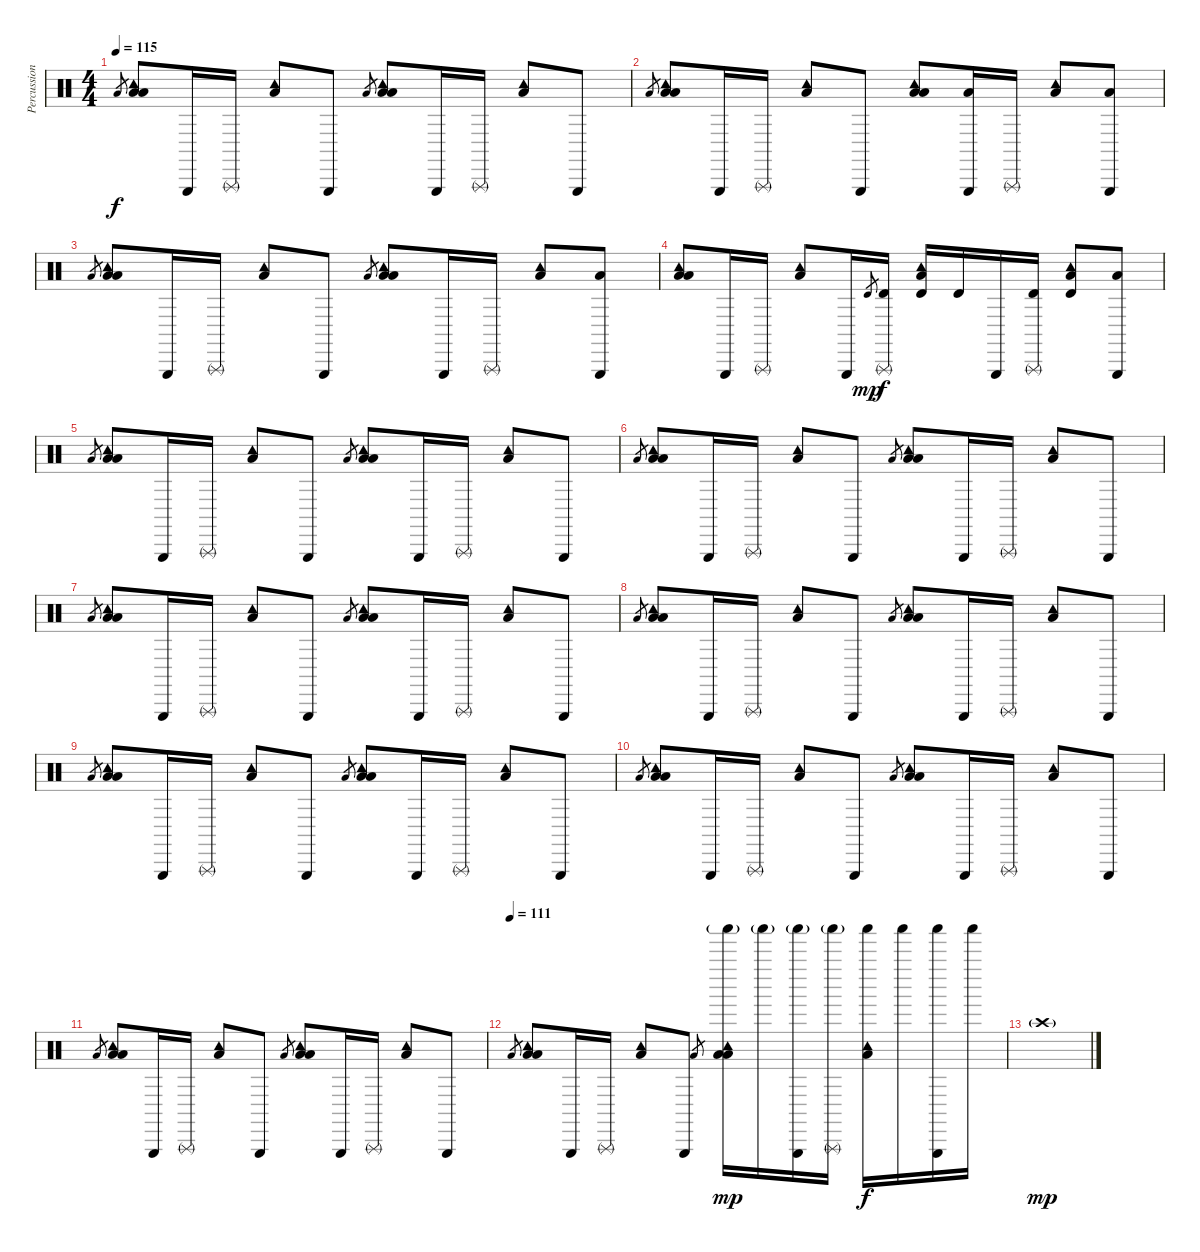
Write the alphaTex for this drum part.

\track ("Percussions" "Percussion") {instrument percussion}
\staff {score}
\articulation defaults
\ts (4 4)
\tempo 115
\clef neutral
\ks c "Low Floor Tom (hit)".8{gr dy f}
("Tambourine (hit)" "Low Floor Tom (hit)" "Low Floor Tom (hit)").8 "Triangle (hit)".16 "Triangle (rnute)".16 ("Tambourine (hit)" "Low Floor Tom (hit)").8 "Triangle (hit)".8 "Low Floor Tom (hit)".8{gr} ("Tambourine (hit)" "Low Floor Tom (hit)" "Low Floor Tom (hit)").8 "Triangle (hit)".16 "Triangle (rnute)".16 ("Tambourine (hit)" "Low Floor Tom (hit)").8 "Triangle (hit)".8 |
"Low Floor Tom (hit)".8{gr} ("Tambourine (hit)" "Low Floor Tom (hit)" "Low Floor Tom (hit)").8 "Triangle (hit)".16 "Triangle (rnute)".16 ("Tambourine (hit)" "Low Floor Tom (hit)").8 "Triangle (hit)".8 ("Tambourine (hit)" "Low Floor Tom (hit)" "Low Floor Tom (hit)").8 ("Triangle (hit)" "Low Floor Tom (hit)").16 "Triangle (rnute)".16 ("Tambourine (hit)" "Low Floor Tom (hit)").8 ("Triangle (hit)" "Low Floor Tom (hit)").8 |
"Low Floor Tom (hit)".8{gr} ("Tambourine (hit)" "Low Floor Tom (hit)" "Low Floor Tom (hit)").8 "Triangle (hit)".16 "Triangle (rnute)".16 ("Tambourine (hit)" "Low Floor Tom (hit)").8 "Triangle (hit)".8 "Low Floor Tom (hit)".8{gr} ("Tambourine (hit)" "Low Floor Tom (hit)" "Low Floor Tom (hit)").8 "Triangle (hit)".16 "Triangle (rnute)".16 ("Tambourine (hit)" "Low Floor Tom (hit)").8 ("Triangle (hit)" "Low Floor Tom (hit)").8 |
("Tambourine (hit)" "Low Floor Tom (hit)" "Low Floor Tom (hit)").8 "Triangle (hit)".16 "Triangle (rnute)".16 ("Tambourine (hit)" "Low Floor Tom (hit)").8 "Triangle (hit)".16 "Timbale high (hit)".8{gr dy mp} ("Triangle (rnute)" "Timbale high (hit)").16{dy f} ("Low Floor Tom (hit)" "Tambourine (hit)" "Timbale high (hit)").16 "Timbale high (hit)".16 "Triangle (hit)".16 ("Triangle (rnute)" "Timbale high (hit)").16 ("Tambourine (hit)" "Low Floor Tom (hit)" "Timbale high (hit)").8 ("Triangle (hit)" "Low Floor Tom (hit)").8 |
"Low Floor Tom (hit)".8{gr} ("Tambourine (hit)" "Low Floor Tom (hit)" "Low Floor Tom (hit)").8 "Triangle (hit)".16 "Triangle (rnute)".16 ("Tambourine (hit)" "Low Floor Tom (hit)").8 "Triangle (hit)".8 "Low Floor Tom (hit)".8{gr} ("Tambourine (hit)" "Low Floor Tom (hit)" "Low Floor Tom (hit)").8 "Triangle (hit)".16 "Triangle (rnute)".16 ("Tambourine (hit)" "Low Floor Tom (hit)").8 "Triangle (hit)".8 |
"Low Floor Tom (hit)".8{gr} ("Tambourine (hit)" "Low Floor Tom (hit)" "Low Floor Tom (hit)").8 "Triangle (hit)".16 "Triangle (rnute)".16 ("Tambourine (hit)" "Low Floor Tom (hit)").8 "Triangle (hit)".8 "Low Floor Tom (hit)".8{gr} ("Tambourine (hit)" "Low Floor Tom (hit)" "Low Floor Tom (hit)").8 "Triangle (hit)".16 "Triangle (rnute)".16 ("Tambourine (hit)" "Low Floor Tom (hit)").8 "Triangle (hit)".8 |
"Low Floor Tom (hit)".8{gr} ("Tambourine (hit)" "Low Floor Tom (hit)" "Low Floor Tom (hit)").8 "Triangle (hit)".16 "Triangle (rnute)".16 ("Tambourine (hit)" "Low Floor Tom (hit)").8 "Triangle (hit)".8 "Low Floor Tom (hit)".8{gr} ("Tambourine (hit)" "Low Floor Tom (hit)" "Low Floor Tom (hit)").8 "Triangle (hit)".16 "Triangle (rnute)".16 ("Tambourine (hit)" "Low Floor Tom (hit)").8 "Triangle (hit)".8 |
"Low Floor Tom (hit)".8{gr} ("Tambourine (hit)" "Low Floor Tom (hit)" "Low Floor Tom (hit)").8 "Triangle (hit)".16 "Triangle (rnute)".16 ("Tambourine (hit)" "Low Floor Tom (hit)").8 "Triangle (hit)".8 "Low Floor Tom (hit)".8{gr} ("Tambourine (hit)" "Low Floor Tom (hit)" "Low Floor Tom (hit)").8 "Triangle (hit)".16 "Triangle (rnute)".16 ("Tambourine (hit)" "Low Floor Tom (hit)").8 "Triangle (hit)".8 |
"Low Floor Tom (hit)".8{gr} ("Tambourine (hit)" "Low Floor Tom (hit)" "Low Floor Tom (hit)").8 "Triangle (hit)".16 "Triangle (rnute)".16 ("Tambourine (hit)" "Low Floor Tom (hit)").8 "Triangle (hit)".8 "Low Floor Tom (hit)".8{gr} ("Tambourine (hit)" "Low Floor Tom (hit)" "Low Floor Tom (hit)").8 "Triangle (hit)".16 "Triangle (rnute)".16 ("Tambourine (hit)" "Low Floor Tom (hit)").8 "Triangle (hit)".8 |
"Low Floor Tom (hit)".8{gr} ("Tambourine (hit)" "Low Floor Tom (hit)" "Low Floor Tom (hit)").8 "Triangle (hit)".16 "Triangle (rnute)".16 ("Tambourine (hit)" "Low Floor Tom (hit)").8 "Triangle (hit)".8 "Low Floor Tom (hit)".8{gr} ("Tambourine (hit)" "Low Floor Tom (hit)" "Low Floor Tom (hit)").8 "Triangle (hit)".16 "Triangle (rnute)".16 ("Tambourine (hit)" "Low Floor Tom (hit)").8 "Triangle (hit)".8 |
"Low Floor Tom (hit)".8{gr} ("Tambourine (hit)" "Low Floor Tom (hit)" "Low Floor Tom (hit)").8 "Triangle (hit)".16 "Triangle (rnute)".16 ("Tambourine (hit)" "Low Floor Tom (hit)").8 "Triangle (hit)".8 "Low Floor Tom (hit)".8{gr} ("Tambourine (hit)" "Low Floor Tom (hit)" "Low Floor Tom (hit)").8 "Triangle (hit)".16 "Triangle (rnute)".16 ("Tambourine (hit)" "Low Floor Tom (hit)").8 "Triangle (hit)".8 |
\tempo (111)
"Low Floor Tom (hit)".8{gr} ("Tambourine (hit)" "Low Floor Tom (hit)" "Low Floor Tom (hit)").8 "Triangle (hit)".16 "Triangle (rnute)".16 ("Tambourine (hit)" "Low Floor Tom (hit)").8 "Triangle (hit)".8 "Low Floor Tom (hit)".8{gr} ("Tambourine (hit)" "Low Floor Tom (hit)" "Low Floor Tom (hit)" "Shaker (hit)"{g}).16{dy mp} "Shaker (hit)"{g}.16 ("Triangle (hit)" "Shaker (hit)"{g}).16 ("Triangle (rnute)" "Shaker (hit)"{g}).16 ("Tambourine (hit)" "Low Floor Tom (hit)" "Shaker (hit)").16{dy f} "Shaker (hit)".16 ("Triangle (hit)" "Shaker (hit)").16 "Shaker (hit)".16 |
"Crash high (hit)"{g}.1{dy mp}
